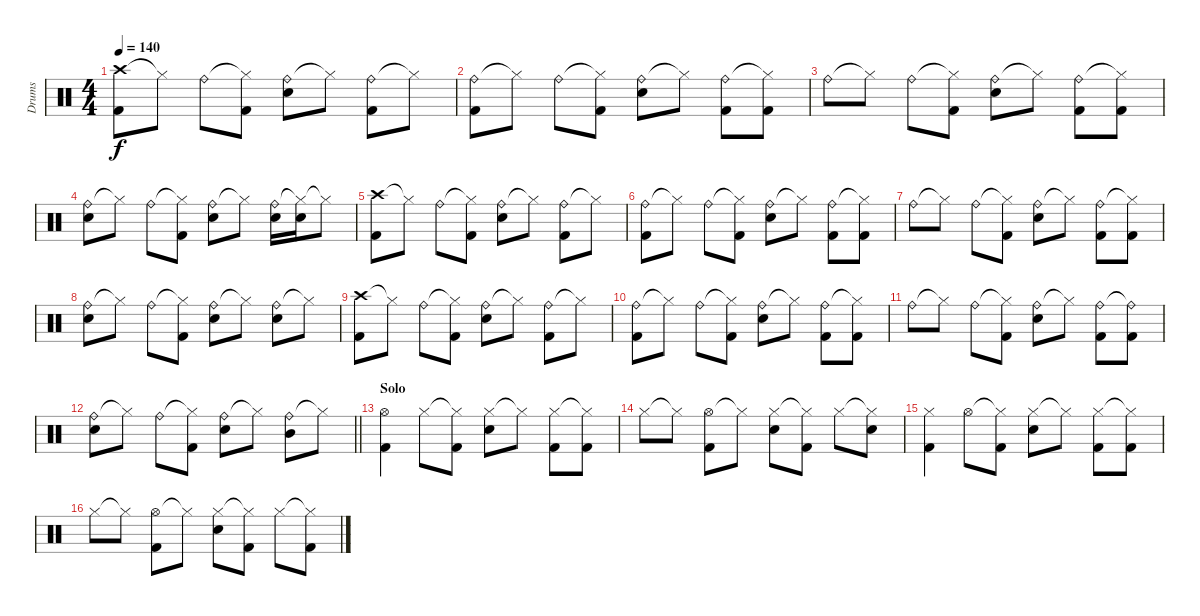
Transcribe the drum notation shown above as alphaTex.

\track ("Drums" "Drums") {instrument percussion}
\staff {score}
\articulation defaults
\ts (4 4)
\tempo 140
\clef neutral
\ks c
("Crash high (hit)" "Kick (hit) 2").8{dy f} "Hi-Hat (closed)"{t}.8 "Ride (bell)".8 ("Hi-Hat (closed)"{t} "Kick (hit) 2").8 ("Ride (bell)" "Snare (hit) 2").8 "Hi-Hat (closed)"{t}.8 ("Ride (bell)" "Kick (hit) 2").8 "Hi-Hat (closed)"{t}.8 |
("Ride (bell)" "Kick (hit) 2").8 "Hi-Hat (closed)"{t}.8 "Ride (bell)".8 ("Hi-Hat (closed)"{t} "Kick (hit) 2").8 ("Ride (bell)" "Snare (hit) 2").8 "Hi-Hat (closed)"{t}.8 ("Ride (bell)" "Kick (hit) 2").8 ("Hi-Hat (closed)"{t} "Kick (hit) 2").8 |
"Ride (bell)".8 "Hi-Hat (closed)"{t}.8 "Ride (bell)".8 ("Hi-Hat (closed)"{t} "Kick (hit) 2").8 ("Ride (bell)" "Snare (hit) 2").8 "Hi-Hat (closed)"{t}.8 ("Ride (bell)" "Kick (hit) 2").8 ("Hi-Hat (closed)"{t} "Kick (hit) 2").8 |
("Ride (bell)" "Snare (hit) 2").8 "Hi-Hat (closed)"{t}.8 "Ride (bell)".8 ("Hi-Hat (closed)"{t} "Kick (hit) 2").8 ("Ride (bell)" "Snare (hit) 2").8 "Hi-Hat (closed)"{t}.8 ("Ride (bell)" "Snare (hit) 2").16 ("Hi-Hat (closed)"{t} "Snare (hit) 2").16 "Hi-Hat (closed)"{t}.8 |
("Crash high (hit)" "Kick (hit) 2").8 "Hi-Hat (closed)"{t}.8 "Ride (bell)".8 ("Hi-Hat (closed)"{t} "Kick (hit) 2").8 ("Ride (bell)" "Snare (hit) 2").8 "Hi-Hat (closed)"{t}.8 ("Ride (bell)" "Kick (hit) 2").8 "Hi-Hat (closed)"{t}.8 |
("Ride (bell)" "Kick (hit) 2").8 "Hi-Hat (closed)"{t}.8 "Ride (bell)".8 ("Hi-Hat (closed)"{t} "Kick (hit) 2").8 ("Ride (bell)" "Snare (hit) 2").8 "Hi-Hat (closed)"{t}.8 ("Ride (bell)" "Kick (hit) 2").8 ("Hi-Hat (closed)"{t} "Kick (hit) 2").8 |
"Ride (bell)".8 "Hi-Hat (closed)"{t}.8 "Ride (bell)".8 ("Hi-Hat (closed)"{t} "Kick (hit) 2").8 ("Ride (bell)" "Snare (hit) 2").8 "Hi-Hat (closed)"{t}.8 ("Ride (bell)" "Kick (hit) 2").8 ("Hi-Hat (closed)"{t} "Kick (hit) 2").8 |
("Ride (bell)" "Snare (hit) 2").8 "Hi-Hat (closed)"{t}.8 "Ride (bell)".8 ("Hi-Hat (closed)"{t} "Kick (hit) 2").8 ("Ride (bell)" "Snare (hit) 2").8 "Hi-Hat (closed)"{t}.8 ("Ride (bell)" "Snare (hit) 2").8 "Hi-Hat (closed)"{t}.8 |
("Crash high (hit)" "Kick (hit) 2").8 "Hi-Hat (closed)"{t}.8 "Ride (bell)".8 ("Hi-Hat (closed)"{t} "Kick (hit) 2").8 ("Ride (bell)" "Snare (hit) 2").8 "Hi-Hat (closed)"{t}.8 ("Ride (bell)" "Kick (hit) 2").8 "Hi-Hat (closed)"{t}.8 |
("Ride (bell)" "Kick (hit) 2").8 "Hi-Hat (closed)"{t}.8 "Ride (bell)".8 ("Hi-Hat (closed)"{t} "Kick (hit) 2").8 ("Ride (bell)" "Snare (hit) 2").8 "Hi-Hat (closed)"{t}.8 ("Ride (bell)" "Kick (hit) 2").8 ("Hi-Hat (closed)"{t} "Kick (hit) 2").8 |
"Ride (bell)".8 "Hi-Hat (closed)"{t}.8 "Ride (bell)".8 ("Hi-Hat (closed)"{t} "Kick (hit) 2").8 ("Ride (bell)" "Snare (hit) 2").8 "Hi-Hat (closed)"{t}.8 ("Ride (bell)" "Kick (hit) 2").8 ("Ride (bell)"{t} "Kick (hit) 2").8 |
\barLineRight lightlight
("Ride (bell)" "Snare (hit) 2").8 "Hi-Hat (closed)"{t}.8 "Ride (bell)".8 ("Hi-Hat (closed)"{t} "Kick (hit) 2").8 ("Ride (bell)" "Snare (hit) 2").8 "Hi-Hat (closed)"{t}.8 ("Ride (bell)" "Mid Tom (hit)").8 "Hi-Hat (closed)"{t}.8 |
\section ("" "Solo")
("Hi-Hat (open)" "Kick (hit) 2").4 "Hi-Hat (closed)".8 ("Hi-Hat (closed)"{t} "Kick (hit) 2").8 ("Hi-Hat (closed)" "Snare (hit) 2").8 "Hi-Hat (closed)"{t}.8 ("Hi-Hat (closed)" "Kick (hit) 2").8 ("Hi-Hat (closed)"{t} "Kick (hit) 2").8 |
"Hi-Hat (closed)".8 "Hi-Hat (closed)"{t}.8 ("Hi-Hat (open)" "Kick (hit) 2").8 "Hi-Hat (closed)"{t}.8 ("Hi-Hat (closed)" "Snare (hit) 2").8 ("Hi-Hat (closed)"{t} "Kick (hit) 2").8 "Hi-Hat (closed)".8 ("Hi-Hat (closed)"{t} "Snare (hit) 2").8 |
("Hi-Hat (closed)" "Kick (hit) 2").4 "Hi-Hat (open)".8 ("Hi-Hat (closed)"{t} "Kick (hit) 2").8 ("Hi-Hat (closed)" "Snare (hit) 2").8 "Hi-Hat (closed)"{t}.8 ("Hi-Hat (closed)" "Kick (hit) 2").8 ("Hi-Hat (closed)"{t} "Kick (hit) 2").8 |
"Hi-Hat (closed)".8 "Hi-Hat (closed)"{t}.8 ("Hi-Hat (open)" "Kick (hit) 2").8 "Hi-Hat (closed)"{t}.8 ("Hi-Hat (closed)" "Snare (hit) 2").8 ("Hi-Hat (closed)"{t} "Kick (hit) 2").8 "Hi-Hat (closed)".8 ("Hi-Hat (closed)"{t} "Kick (hit) 2").8
